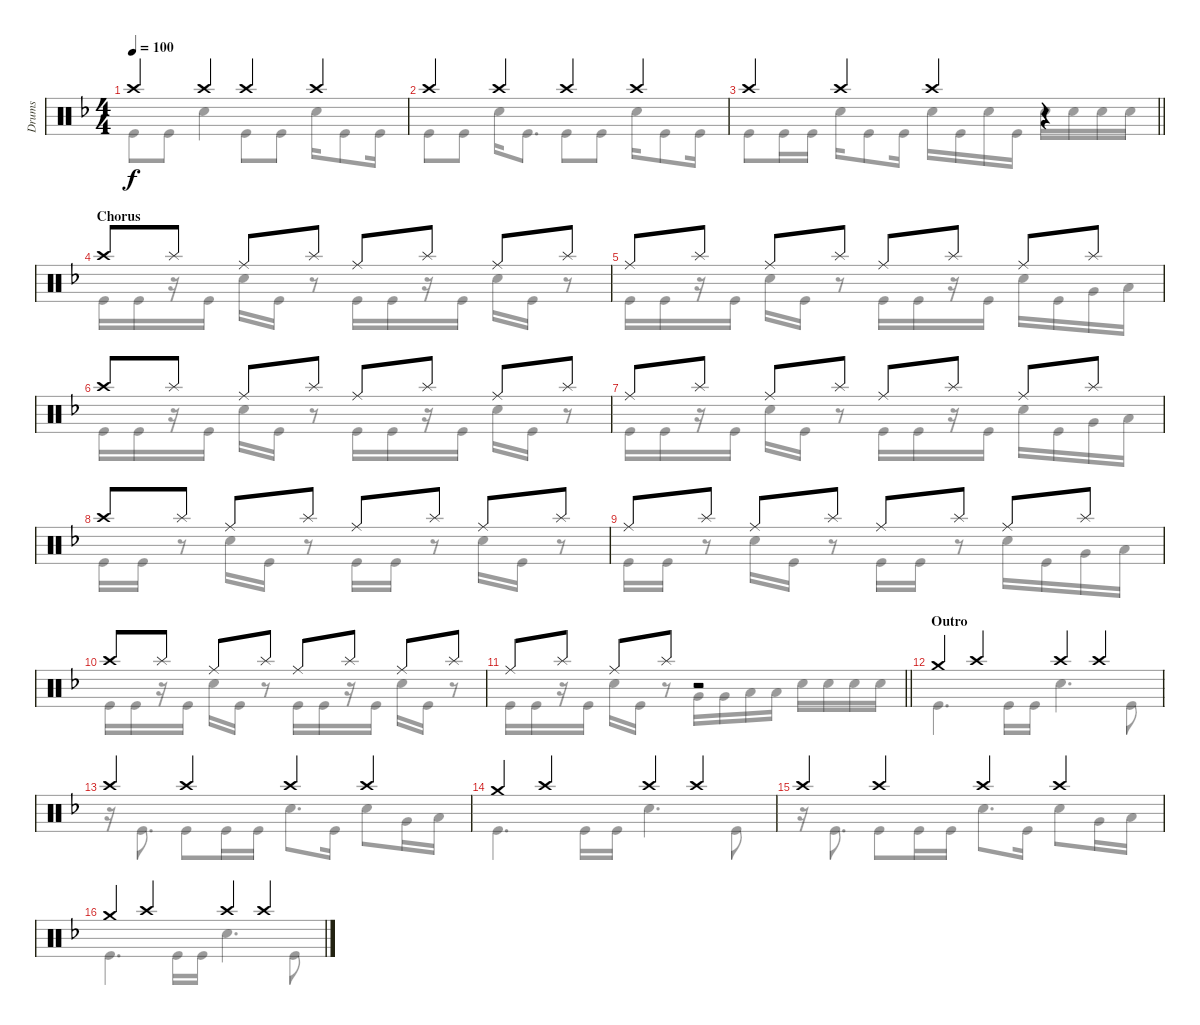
\track ("Drums" "Drums") {instrument percussion}
\staff {score}
\articulation defaults
\voice
\ts (4 4)
\tempo 100
\clef neutral
\ks dminor "Crash high (hit)".4{dy f} "Crash high (hit)".4 "Crash high (hit)".4 "Crash high (hit)".4
|
"Crash high (hit)".4 "Crash high (hit)".4 "Crash high (hit)".4 "Crash high (hit)".4 |
\barLineRight lightlight "Crash high (hit)".4 "Crash high (hit)".4 "Crash high (hit)".4
r.4 |
\section ("" "Chorus")
"Crash high (hit)".8 "Splash (hit)".8 "Ride (middle)".8 "Splash (hit)".8 "Ride (middle)".8 "Splash (hit)".8 "Ride (middle)".8 "Splash (hit)".8 |
"Ride (middle)".8 "Splash (hit)".8 "Ride (middle)".8 "Splash (hit)".8 "Ride (middle)".8 "Splash (hit)".8 "Ride (middle)".8 "Splash (hit)".8 |
"Crash high (hit)".8 "Splash (hit)".8 "Ride (middle)".8 "Splash (hit)".8 "Ride (middle)".8 "Splash (hit)".8 "Ride (middle)".8 "Splash (hit)".8 |
"Ride (middle)".8 "Splash (hit)".8 "Ride (middle)".8 "Splash (hit)".8 "Ride (middle)".8 "Splash (hit)".8 "Ride (middle)".8 "Splash (hit)".8 |
"Crash high (hit)".8 "Splash (hit)".8 "Ride (middle)".8 "Splash (hit)".8 "Ride (middle)".8 "Splash (hit)".8 "Ride (middle)".8 "Splash (hit)".8 |
"Ride (middle)".8 "Splash (hit)".8 "Ride (middle)".8 "Splash (hit)".8 "Ride (middle)".8 "Splash (hit)".8 "Ride (middle)".8 "Splash (hit)".8 |
"Crash high (hit)".8 "Splash (hit)".8 "Ride (middle)".8 "Splash (hit)".8 "Ride (middle)".8 "Splash (hit)".8 "Ride (middle)".8 "Splash (hit)".8 |
\barLineRight lightlight "Ride (middle)".8 "Splash (hit)".8 "Ride (middle)".8 "Splash (hit)".8
r.2 |
\section ("" "Outro")
"Crash medium (hit)".4 "Crash high (hit)".4 "Crash high (hit)".4 "Crash high (hit)".4 |
"Crash high (hit)".4 "Crash high (hit)".4 "Crash high (hit)".4 "Crash high (hit)".4 |
"Crash medium (hit)".4 "Crash high (hit)".4 "Crash high (hit)".4 "Crash high (hit)".4 |
"Crash high (hit)".4 "Crash high (hit)".4 "Crash high (hit)".4 "Crash high (hit)".4 |
"Crash medium (hit)".4 "Crash high (hit)".4 "Crash high (hit)".4 "Crash high (hit)".4
\voice
\clef neutral
\ottava regular
\simile none
\ks dminor "Kick (hit)".8{dy f} "Kick (hit)".8 "Snare (hit) 2".4 "Kick (hit)".8 "Kick (hit)".8 "Snare (hit) 2".16 "Kick (hit)".8 "Kick (hit)".16
|
"Kick (hit)".8 "Kick (hit)".8 "Snare (hit) 2".16 "Kick (hit)".8{d} "Kick (hit)".8 "Kick (hit)".8 "Snare (hit) 2".16 "Kick (hit)".8 "Kick (hit)".16 |
\barLineRight lightlight "Kick (hit)".8 "Kick (hit)".16 "Kick (hit)".16 "Snare (hit) 2".16 "Kick (hit)".8 "Kick (hit)".16 "Snare (hit) 2".16 "Kick (hit)".16 "Snare (hit) 2".16 "Kick (hit)".16 "Snare (hit) 2".16 "Snare (hit) 2".16 "Snare (hit) 2".16 "Snare (hit) 2".16
|
"Kick (hit)".16 "Kick (hit)".16 r.16 "Kick (hit)".16 "Snare (hit) 2".16 "Kick (hit)".16 r.8 "Kick (hit)".16 "Kick (hit)".16 r.16 "Kick (hit)".16 "Snare (hit) 2".16 "Kick (hit)".16 r.8 |
"Kick (hit)".16 "Kick (hit)".16 r.16 "Kick (hit)".16 "Snare (hit) 2".16 "Kick (hit)".16 r.8 "Kick (hit)".16 "Kick (hit)".16 r.16 "Kick (hit)".16 "Snare (hit) 2".16 "Kick (hit)".16 "Very Low Tom (hit)".16 "Low Floor Tom (hit)".16 |
"Kick (hit)".16 "Kick (hit)".16 r.16 "Kick (hit)".16 "Snare (hit) 2".16 "Kick (hit)".16 r.8 "Kick (hit)".16 "Kick (hit)".16 r.16 "Kick (hit)".16 "Snare (hit) 2".16 "Kick (hit)".16 r.8 |
"Kick (hit)".16 "Kick (hit)".16 r.16 "Kick (hit)".16 "Snare (hit) 2".16 "Kick (hit)".16 r.8 "Kick (hit)".16 "Kick (hit)".16 r.16 "Kick (hit)".16 "Snare (hit) 2".16 "Kick (hit)".16 "Very Low Tom (hit)".16 "Low Floor Tom (hit)".16 |
"Kick (hit)".16 "Kick (hit)".16 r.8 "Snare (hit) 2".16 "Kick (hit)".16 r.8 "Kick (hit)".16 "Kick (hit)".16 r.8 "Snare (hit) 2".16 "Kick (hit)".16 r.8 |
"Kick (hit)".16 "Kick (hit)".16 r.8 "Snare (hit) 2".16 "Kick (hit)".16 r.8 "Kick (hit)".16 "Kick (hit)".16 r.8 "Snare (hit) 2".16 "Kick (hit)".16 "Very Low Tom (hit)".16 "Low Floor Tom (hit)".16 |
"Kick (hit)".16 "Kick (hit)".16 r.16 "Kick (hit)".16 "Snare (hit) 2".16 "Kick (hit)".16 r.8 "Kick (hit)".16 "Kick (hit)".16 r.16 "Kick (hit)".16 "Snare (hit) 2".16 "Kick (hit)".16 r.8 |
\barLineRight lightlight "Kick (hit)".16 "Kick (hit)".16
r.16 "Kick (hit)".16 "Snare (hit) 2".16 "Kick (hit)".16 r.8 "Very Low Tom (hit)".16 "Very Low Tom (hit)".16 "Low Floor Tom (hit)".16 "Low Floor Tom (hit)".16 "Snare (hit) 2".16 "Snare (hit) 2".16 "Snare (hit) 2".16 "Snare (hit) 2".16 |
"Kick (hit)".4{d} "Kick (hit)".16 "Kick (hit)".16 "Snare (hit) 2".4{d} "Kick (hit)".8 |
r.16 "Kick (hit)".8{d} "Kick (hit)".8 "Kick (hit)".16 "Kick (hit)".16 "Snare (hit) 2".8{d} "Kick (hit)".16 "Snare (hit) 2".8 "Very Low Tom (hit)".16 "Low Floor Tom (hit)".16 |
"Kick (hit)".4{d} "Kick (hit)".16 "Kick (hit)".16 "Snare (hit) 2".4{d} "Kick (hit)".8 |
r.16 "Kick (hit)".8{d} "Kick (hit)".8 "Kick (hit)".16 "Kick (hit)".16 "Snare (hit) 2".8{d} "Kick (hit)".16 "Snare (hit) 2".8 "Very Low Tom (hit)".16 "Low Floor Tom (hit)".16 |
"Kick (hit)".4{d} "Kick (hit)".16 "Kick (hit)".16 "Snare (hit) 2".4{d} "Kick (hit)".8
